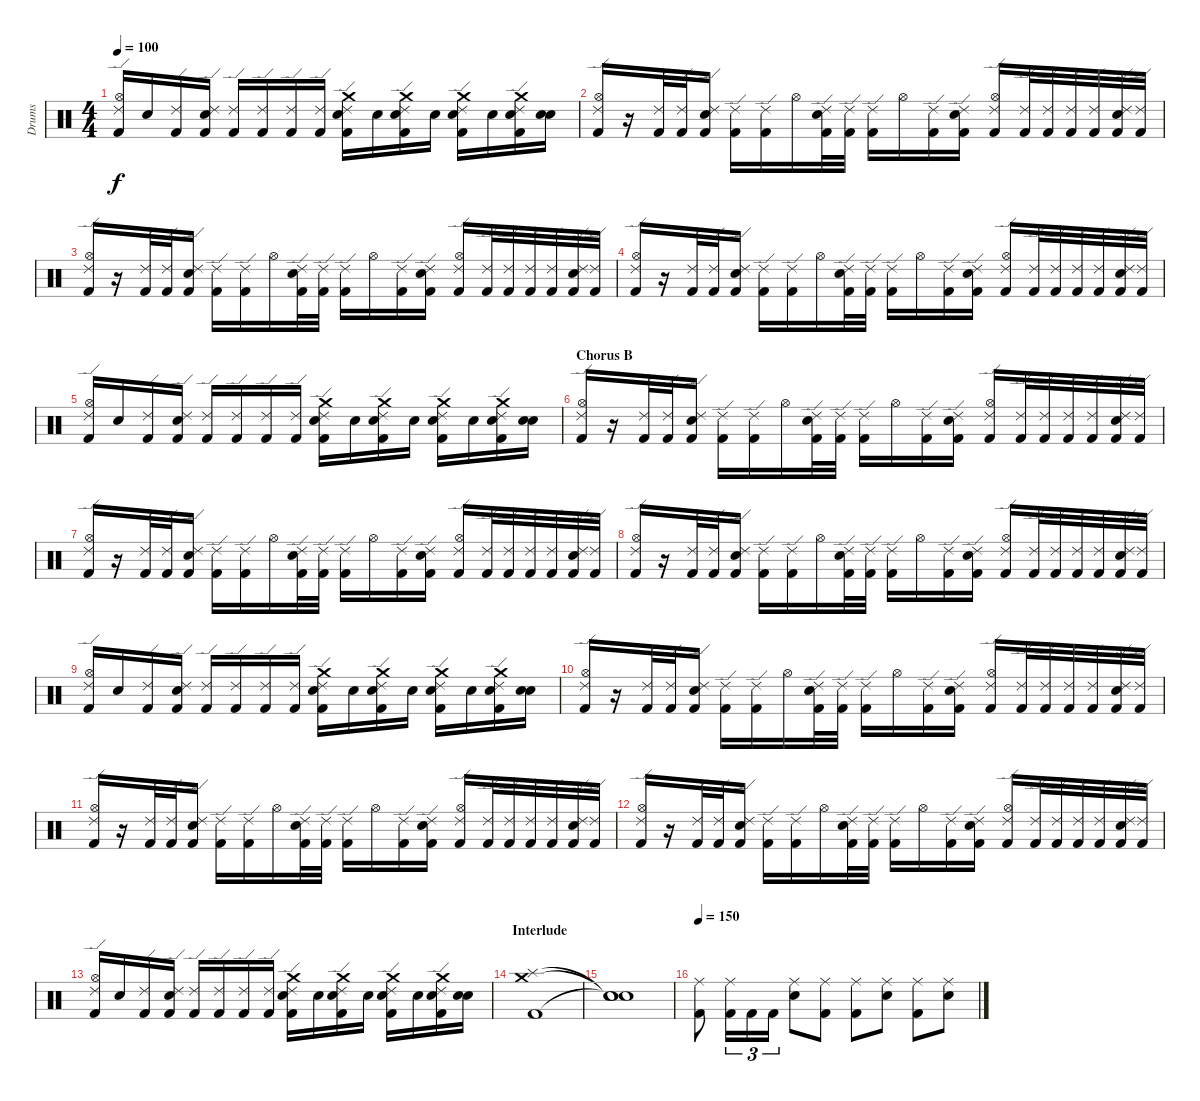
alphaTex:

\track ("Drums" "Drums") {instrument percussion}
\staff {score}
\articulation defaults
\ts (4 4)
\tempo 100
\clef neutral
\ks c
("Kick (hit) 2" "Hi-Hat (open)" "Ride (edge) 2").16{dy f} "Snare (hit)".16 ("Kick (hit) 2" "Ride (edge) 2").16 ("Kick (hit) 2" "Electric Snare (hit)" "Ride (edge) 2").16 ("Kick (hit) 2" "Ride (edge) 2").16 ("Kick (hit) 2" "Ride (edge) 2").16 ("Kick (hit) 2" "Ride (edge) 2").16 ("Kick (hit) 2" "Ride (edge) 2").16 ("Kick (hit) 2" "Electric Snare (hit)" "Crash medium (hit)" "Ride (edge) 2").16 "Snare (hit)".16 ("Kick (hit) 2" "Electric Snare (hit)" "Crash medium (hit)" "Ride (edge) 2").16 "Snare (hit)".16 ("Kick (hit) 2" "Electric Snare (hit)" "Crash medium (hit)" "Ride (edge) 2").16 "Snare (hit)".16 ("Kick (hit) 2" "Electric Snare (hit)" "Crash medium (hit)" "Ride (edge) 2").16 ("Snare (hit)" "Snare (hit)").16 |
("Kick (hit) 2" "Hi-Hat (open)" "Ride (edge) 2").16 r.16 ("Kick (hit) 2" "Ride (edge) 2").32 ("Kick (hit) 2" "Ride (edge) 2").32 ("Kick (hit) 2" "Electric Snare (hit)" "Ride (edge) 2").16 ("Kick (hit) 2" "Ride (edge) 2").16 ("Kick (hit) 2" "Ride (edge) 2").16 "Hi-Hat (open)".16 ("Kick (hit) 2" "Electric Snare (hit)" "Ride (edge) 2").32 ("Kick (hit) 2" "Ride (edge) 2").32 ("Kick (hit) 2" "Ride (edge) 2").16 "Hi-Hat (open)".16 ("Kick (hit) 2" "Ride (edge) 2").16 ("Kick (hit) 2" "Electric Snare (hit)" "Ride (edge) 2").16 ("Kick (hit) 2" "Hi-Hat (open)" "Ride (edge) 2").16 ("Kick (hit) 2" "Ride (edge) 2").32 ("Kick (hit) 2" "Ride (edge) 2").32 ("Kick (hit) 2" "Ride (edge) 2").32 ("Kick (hit) 2" "Ride (edge) 2").32 ("Kick (hit) 2" "Electric Snare (hit)" "Ride (edge) 2").32 ("Kick (hit) 2" "Ride (edge) 2").32 |
("Kick (hit) 2" "Hi-Hat (open)" "Ride (edge) 2").16 r.16 ("Kick (hit) 2" "Ride (edge) 2").32 ("Kick (hit) 2" "Ride (edge) 2").32 ("Kick (hit) 2" "Electric Snare (hit)" "Ride (edge) 2").16 ("Kick (hit) 2" "Ride (edge) 2").16 ("Kick (hit) 2" "Ride (edge) 2").16 "Hi-Hat (open)".16 ("Kick (hit) 2" "Electric Snare (hit)" "Ride (edge) 2").32 ("Kick (hit) 2" "Ride (edge) 2").32 ("Kick (hit) 2" "Ride (edge) 2").16 "Hi-Hat (open)".16 ("Kick (hit) 2" "Ride (edge) 2").16 ("Kick (hit) 2" "Electric Snare (hit)" "Ride (edge) 2").16 ("Kick (hit) 2" "Hi-Hat (open)" "Ride (edge) 2").16 ("Kick (hit) 2" "Ride (edge) 2").32 ("Kick (hit) 2" "Ride (edge) 2").32 ("Kick (hit) 2" "Ride (edge) 2").32 ("Kick (hit) 2" "Ride (edge) 2").32 ("Kick (hit) 2" "Electric Snare (hit)" "Ride (edge) 2").32 ("Kick (hit) 2" "Ride (edge) 2").32 |
("Kick (hit) 2" "Hi-Hat (open)" "Ride (edge) 2").16 r.16 ("Kick (hit) 2" "Ride (edge) 2").32 ("Kick (hit) 2" "Ride (edge) 2").32 ("Kick (hit) 2" "Electric Snare (hit)" "Ride (edge) 2").16 ("Kick (hit) 2" "Ride (edge) 2").16 ("Kick (hit) 2" "Ride (edge) 2").16 "Hi-Hat (open)".16 ("Kick (hit) 2" "Electric Snare (hit)" "Ride (edge) 2").32 ("Kick (hit) 2" "Ride (edge) 2").32 ("Kick (hit) 2" "Ride (edge) 2").16 "Hi-Hat (open)".16 ("Kick (hit) 2" "Ride (edge) 2").16 ("Kick (hit) 2" "Electric Snare (hit)" "Ride (edge) 2").16 ("Kick (hit) 2" "Hi-Hat (open)" "Ride (edge) 2").16 ("Kick (hit) 2" "Ride (edge) 2").32 ("Kick (hit) 2" "Ride (edge) 2").32 ("Kick (hit) 2" "Ride (edge) 2").32 ("Kick (hit) 2" "Ride (edge) 2").32 ("Kick (hit) 2" "Electric Snare (hit)" "Ride (edge) 2").32 ("Kick (hit) 2" "Ride (edge) 2").32 |
("Kick (hit) 2" "Hi-Hat (open)" "Ride (edge) 2").16 "Snare (hit)".16 ("Kick (hit) 2" "Ride (edge) 2").16 ("Kick (hit) 2" "Electric Snare (hit)" "Ride (edge) 2").16 ("Kick (hit) 2" "Ride (edge) 2").16 ("Kick (hit) 2" "Ride (edge) 2").16 ("Kick (hit) 2" "Ride (edge) 2").16 ("Kick (hit) 2" "Ride (edge) 2").16 ("Kick (hit) 2" "Electric Snare (hit)" "Crash medium (hit)" "Ride (edge) 2").16 "Snare (hit)".16 ("Kick (hit) 2" "Electric Snare (hit)" "Crash medium (hit)" "Ride (edge) 2").16 "Snare (hit)".16 ("Kick (hit) 2" "Electric Snare (hit)" "Crash medium (hit)" "Ride (edge) 2").16 "Snare (hit)".16 ("Kick (hit) 2" "Electric Snare (hit)" "Crash medium (hit)" "Ride (edge) 2").16 ("Snare (hit)" "Snare (hit)").16 |
\section ("" "Chorus B")
("Kick (hit) 2" "Hi-Hat (open)" "Ride (edge) 2").16 r.16 ("Kick (hit) 2" "Ride (edge) 2").32 ("Kick (hit) 2" "Ride (edge) 2").32 ("Kick (hit) 2" "Electric Snare (hit)" "Ride (edge) 2").16 ("Kick (hit) 2" "Ride (edge) 2").16 ("Kick (hit) 2" "Ride (edge) 2").16 "Hi-Hat (open)".16 ("Kick (hit) 2" "Electric Snare (hit)" "Ride (edge) 2").32 ("Kick (hit) 2" "Ride (edge) 2").32 ("Kick (hit) 2" "Ride (edge) 2").16 "Hi-Hat (open)".16 ("Kick (hit) 2" "Ride (edge) 2").16 ("Kick (hit) 2" "Electric Snare (hit)" "Ride (edge) 2").16 ("Kick (hit) 2" "Hi-Hat (open)" "Ride (edge) 2").16 ("Kick (hit) 2" "Ride (edge) 2").32 ("Kick (hit) 2" "Ride (edge) 2").32 ("Kick (hit) 2" "Ride (edge) 2").32 ("Kick (hit) 2" "Ride (edge) 2").32 ("Kick (hit) 2" "Electric Snare (hit)" "Ride (edge) 2").32 ("Kick (hit) 2" "Ride (edge) 2").32 |
("Kick (hit) 2" "Hi-Hat (open)" "Ride (edge) 2").16 r.16 ("Kick (hit) 2" "Ride (edge) 2").32 ("Kick (hit) 2" "Ride (edge) 2").32 ("Kick (hit) 2" "Electric Snare (hit)" "Ride (edge) 2").16 ("Kick (hit) 2" "Ride (edge) 2").16 ("Kick (hit) 2" "Ride (edge) 2").16 "Hi-Hat (open)".16 ("Kick (hit) 2" "Electric Snare (hit)" "Ride (edge) 2").32 ("Kick (hit) 2" "Ride (edge) 2").32 ("Kick (hit) 2" "Ride (edge) 2").16 "Hi-Hat (open)".16 ("Kick (hit) 2" "Ride (edge) 2").16 ("Kick (hit) 2" "Electric Snare (hit)" "Ride (edge) 2").16 ("Kick (hit) 2" "Hi-Hat (open)" "Ride (edge) 2").16 ("Kick (hit) 2" "Ride (edge) 2").32 ("Kick (hit) 2" "Ride (edge) 2").32 ("Kick (hit) 2" "Ride (edge) 2").32 ("Kick (hit) 2" "Ride (edge) 2").32 ("Kick (hit) 2" "Electric Snare (hit)" "Ride (edge) 2").32 ("Kick (hit) 2" "Ride (edge) 2").32 |
("Kick (hit) 2" "Hi-Hat (open)" "Ride (edge) 2").16 r.16 ("Kick (hit) 2" "Ride (edge) 2").32 ("Kick (hit) 2" "Ride (edge) 2").32 ("Kick (hit) 2" "Electric Snare (hit)" "Ride (edge) 2").16 ("Kick (hit) 2" "Ride (edge) 2").16 ("Kick (hit) 2" "Ride (edge) 2").16 "Hi-Hat (open)".16 ("Kick (hit) 2" "Electric Snare (hit)" "Ride (edge) 2").32 ("Kick (hit) 2" "Ride (edge) 2").32 ("Kick (hit) 2" "Ride (edge) 2").16 "Hi-Hat (open)".16 ("Kick (hit) 2" "Ride (edge) 2").16 ("Kick (hit) 2" "Electric Snare (hit)" "Ride (edge) 2").16 ("Kick (hit) 2" "Hi-Hat (open)" "Ride (edge) 2").16 ("Kick (hit) 2" "Ride (edge) 2").32 ("Kick (hit) 2" "Ride (edge) 2").32 ("Kick (hit) 2" "Ride (edge) 2").32 ("Kick (hit) 2" "Ride (edge) 2").32 ("Kick (hit) 2" "Electric Snare (hit)" "Ride (edge) 2").32 ("Kick (hit) 2" "Ride (edge) 2").32 |
("Kick (hit) 2" "Hi-Hat (open)" "Ride (edge) 2").16 "Snare (hit)".16 ("Kick (hit) 2" "Ride (edge) 2").16 ("Kick (hit) 2" "Electric Snare (hit)" "Ride (edge) 2").16 ("Kick (hit) 2" "Ride (edge) 2").16 ("Kick (hit) 2" "Ride (edge) 2").16 ("Kick (hit) 2" "Ride (edge) 2").16 ("Kick (hit) 2" "Ride (edge) 2").16 ("Kick (hit) 2" "Electric Snare (hit)" "Crash medium (hit)" "Ride (edge) 2").16 "Snare (hit)".16 ("Kick (hit) 2" "Electric Snare (hit)" "Crash medium (hit)" "Ride (edge) 2").16 "Snare (hit)".16 ("Kick (hit) 2" "Electric Snare (hit)" "Crash medium (hit)" "Ride (edge) 2").16 "Snare (hit)".16 ("Kick (hit) 2" "Electric Snare (hit)" "Crash medium (hit)" "Ride (edge) 2").16 ("Snare (hit)" "Snare (hit)").16 |
("Kick (hit) 2" "Hi-Hat (open)" "Ride (edge) 2").16 r.16 ("Kick (hit) 2" "Ride (edge) 2").32 ("Kick (hit) 2" "Ride (edge) 2").32 ("Kick (hit) 2" "Electric Snare (hit)" "Ride (edge) 2").16 ("Kick (hit) 2" "Ride (edge) 2").16 ("Kick (hit) 2" "Ride (edge) 2").16 "Hi-Hat (open)".16 ("Kick (hit) 2" "Electric Snare (hit)" "Ride (edge) 2").32 ("Kick (hit) 2" "Ride (edge) 2").32 ("Kick (hit) 2" "Ride (edge) 2").16 "Hi-Hat (open)".16 ("Kick (hit) 2" "Ride (edge) 2").16 ("Kick (hit) 2" "Electric Snare (hit)" "Ride (edge) 2").16 ("Kick (hit) 2" "Hi-Hat (open)" "Ride (edge) 2").16 ("Kick (hit) 2" "Ride (edge) 2").32 ("Kick (hit) 2" "Ride (edge) 2").32 ("Kick (hit) 2" "Ride (edge) 2").32 ("Kick (hit) 2" "Ride (edge) 2").32 ("Kick (hit) 2" "Electric Snare (hit)" "Ride (edge) 2").32 ("Kick (hit) 2" "Ride (edge) 2").32 |
("Kick (hit) 2" "Hi-Hat (open)" "Ride (edge) 2").16 r.16 ("Kick (hit) 2" "Ride (edge) 2").32 ("Kick (hit) 2" "Ride (edge) 2").32 ("Kick (hit) 2" "Electric Snare (hit)" "Ride (edge) 2").16 ("Kick (hit) 2" "Ride (edge) 2").16 ("Kick (hit) 2" "Ride (edge) 2").16 "Hi-Hat (open)".16 ("Kick (hit) 2" "Electric Snare (hit)" "Ride (edge) 2").32 ("Kick (hit) 2" "Ride (edge) 2").32 ("Kick (hit) 2" "Ride (edge) 2").16 "Hi-Hat (open)".16 ("Kick (hit) 2" "Ride (edge) 2").16 ("Kick (hit) 2" "Electric Snare (hit)" "Ride (edge) 2").16 ("Kick (hit) 2" "Hi-Hat (open)" "Ride (edge) 2").16 ("Kick (hit) 2" "Ride (edge) 2").32 ("Kick (hit) 2" "Ride (edge) 2").32 ("Kick (hit) 2" "Ride (edge) 2").32 ("Kick (hit) 2" "Ride (edge) 2").32 ("Kick (hit) 2" "Electric Snare (hit)" "Ride (edge) 2").32 ("Kick (hit) 2" "Ride (edge) 2").32 |
("Kick (hit) 2" "Hi-Hat (open)" "Ride (edge) 2").16 r.16 ("Kick (hit) 2" "Ride (edge) 2").32 ("Kick (hit) 2" "Ride (edge) 2").32 ("Kick (hit) 2" "Electric Snare (hit)" "Ride (edge) 2").16 ("Kick (hit) 2" "Ride (edge) 2").16 ("Kick (hit) 2" "Ride (edge) 2").16 "Hi-Hat (open)".16 ("Kick (hit) 2" "Electric Snare (hit)" "Ride (edge) 2").32 ("Kick (hit) 2" "Ride (edge) 2").32 ("Kick (hit) 2" "Ride (edge) 2").16 "Hi-Hat (open)".16 ("Kick (hit) 2" "Ride (edge) 2").16 ("Kick (hit) 2" "Electric Snare (hit)" "Ride (edge) 2").16 ("Kick (hit) 2" "Hi-Hat (open)" "Ride (edge) 2").16 ("Kick (hit) 2" "Ride (edge) 2").32 ("Kick (hit) 2" "Ride (edge) 2").32 ("Kick (hit) 2" "Ride (edge) 2").32 ("Kick (hit) 2" "Ride (edge) 2").32 ("Kick (hit) 2" "Electric Snare (hit)" "Ride (edge) 2").32 ("Kick (hit) 2" "Ride (edge) 2").32 |
("Kick (hit) 2" "Hi-Hat (open)" "Ride (edge) 2").16 "Snare (hit)".16 ("Kick (hit) 2" "Ride (edge) 2").16 ("Kick (hit) 2" "Electric Snare (hit)" "Ride (edge) 2").16 ("Kick (hit) 2" "Ride (edge) 2").16 ("Kick (hit) 2" "Ride (edge) 2").16 ("Kick (hit) 2" "Ride (edge) 2").16 ("Kick (hit) 2" "Ride (edge) 2").16 ("Kick (hit) 2" "Electric Snare (hit)" "Crash medium (hit)" "Ride (edge) 2").16 "Snare (hit)".16 ("Kick (hit) 2" "Electric Snare (hit)" "Crash medium (hit)" "Ride (edge) 2").16 "Snare (hit)".16 ("Kick (hit) 2" "Electric Snare (hit)" "Crash medium (hit)" "Ride (edge) 2").16 "Snare (hit)".16 ("Kick (hit) 2" "Electric Snare (hit)" "Crash medium (hit)" "Ride (edge) 2").16 ("Snare (hit)" "Snare (hit)").16 |
\section ("" "Interlude")
("Kick (hit) 2" "Splash (hit)" "Crash medium (hit)").1 |
("Snare (hit)"{t} "Snare (hit)"{t} "Snare (hit)"{t}).1 |
\tempo 150
("Kick (hit) 2" "Ride (middle)").8 ("Kick (hit) 2" "Ride (middle)").16{tu (3 2)} "Kick (hit) 2".16{tu (3 2)} "Kick (hit) 2".16{tu (3 2)} ("Snare (hit) 2" "Ride (middle)").8 ("Kick (hit) 2" "Ride (middle)").8 ("Kick (hit) 2" "Ride (middle)").8 ("Snare (hit) 2" "Ride (middle)").8 ("Kick (hit) 2" "Ride (middle)").8 ("Snare (hit) 2" "Ride (middle)").8
